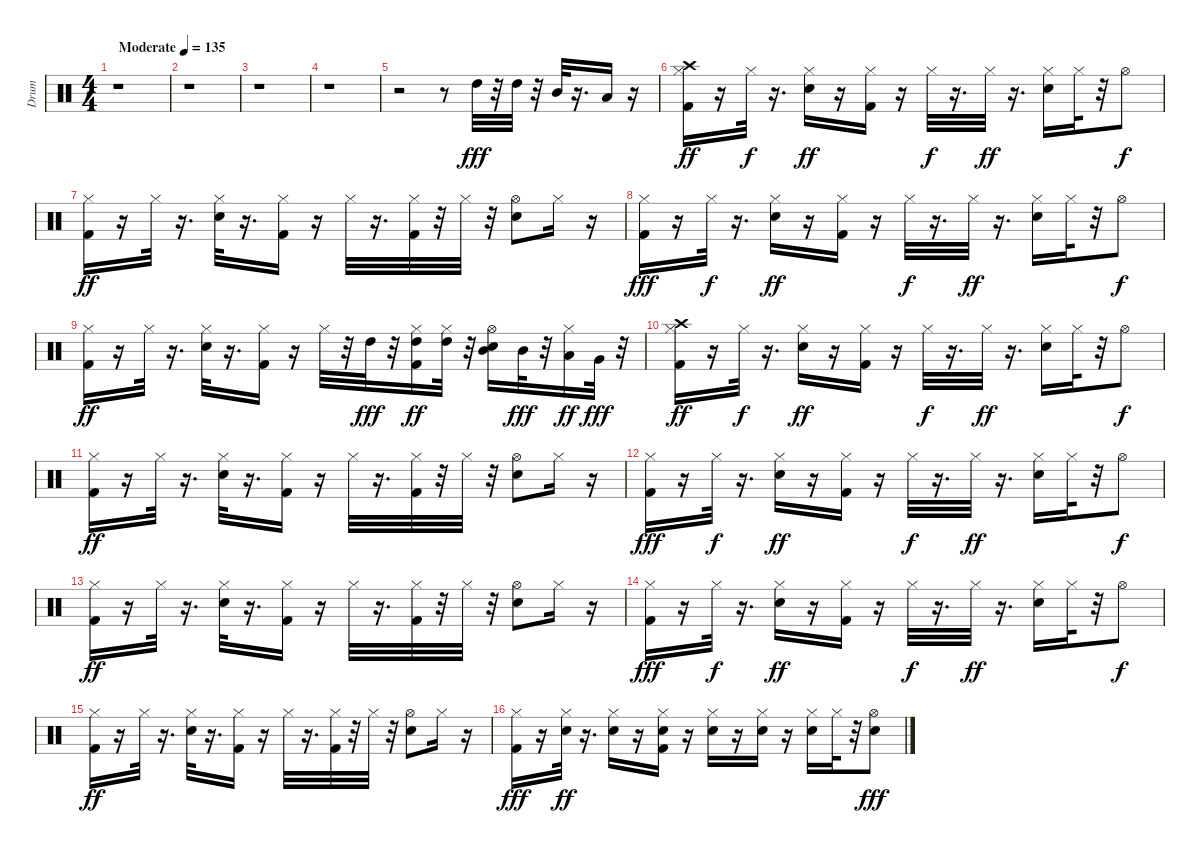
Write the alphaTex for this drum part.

\track ("Drum" "Drum") {instrument percussion}
\staff {score}
\articulation defaults
\ts (4 4)
\tempo (135 "Moderate")
\clef neutral
\ks c
r.1{dy fff} |
r.1 |
r.1 |
r.1 |
r.2 r.8 "High Tom (hit)".32 r.32 "High Tom (hit)".32 r.32 "Mid Tom (hit)".32 r.16{d} "Low Tom (hit)".16 r.16 |
("Kick (hit) 2" "Hi-Hat (closed)" "Crash high (hit)").16{dy ff} r.16 "Hi-Hat (closed)".32{dy f} r.16{d} ("Snare (hit) 2" "Hi-Hat (closed)").16{dy ff} r.16 ("Kick (hit) 2" "Hi-Hat (closed)").16 r.16 "Hi-Hat (closed)".32{dy f} r.16{d} "Hi-Hat (closed)".32{dy ff} r.16{d} ("Snare (hit) 2" "Hi-Hat (closed)").16 "Hi-Hat (closed)".32 r.32 "Hi-Hat (open)".8{dy f} |
("Kick (hit) 2" "Hi-Hat (closed)").16{dy ff} r.16 "Hi-Hat (closed)".32 r.16{d} ("Snare (hit) 2" "Hi-Hat (closed)").32 r.16{d} ("Kick (hit) 2" "Hi-Hat (closed)").16 r.16 "Hi-Hat (closed)".32 r.16{d} ("Kick (hit) 2" "Hi-Hat (closed)").32 r.32 "Hi-Hat (closed)".32 r.32 ("Snare (hit) 2" "Hi-Hat (open)").8 "Hi-Hat (closed)".16 r.16 |
("Kick (hit) 2" "Hi-Hat (closed)").16{dy fff} r.16 "Hi-Hat (closed)".32{dy f} r.16{d} ("Snare (hit) 2" "Hi-Hat (closed)").16{dy ff} r.16 ("Kick (hit) 2" "Hi-Hat (closed)").16 r.16 "Hi-Hat (closed)".32{dy f} r.16{d} "Hi-Hat (closed)".32{dy ff} r.16{d} ("Snare (hit) 2" "Hi-Hat (closed)").16 "Hi-Hat (closed)".32 r.32 "Hi-Hat (open)".8{dy f} |
("Kick (hit) 2" "Hi-Hat (closed)").16{dy ff} r.16 "Hi-Hat (closed)".32 r.16{d} ("Snare (hit) 2" "Hi-Hat (closed)").32 r.16{d} ("Kick (hit) 2" "Hi-Hat (closed)").16 r.16 "Hi-Hat (closed)".32 r.32 "High Tom (hit)".32{dy fff} r.32 ("High Tom (hit)" "Kick (hit) 2" "Hi-Hat (closed)").16{dy ff} ("High Tom (hit)" "Hi-Hat (closed)").32 r.32 ("Mid Tom (hit)" "Snare (hit) 2" "Hi-Hat (open)").16 "Mid Tom (hit)".32{dy fff} r.32 ("Low Tom (hit)" "Hi-Hat (closed)").16{dy ff} "Very Low Tom (hit)".32{dy fff} r.32 |
("Kick (hit) 2" "Hi-Hat (closed)" "Crash high (hit)").16{dy ff} r.16 "Hi-Hat (closed)".32{dy f} r.16{d} ("Snare (hit) 2" "Hi-Hat (closed)").16{dy ff} r.16 ("Kick (hit) 2" "Hi-Hat (closed)").16 r.16 "Hi-Hat (closed)".32{dy f} r.16{d} "Hi-Hat (closed)".32{dy ff} r.16{d} ("Snare (hit) 2" "Hi-Hat (closed)").16 "Hi-Hat (closed)".32 r.32 "Hi-Hat (open)".8{dy f} |
("Kick (hit) 2" "Hi-Hat (closed)").16{dy ff} r.16 "Hi-Hat (closed)".32 r.16{d} ("Snare (hit) 2" "Hi-Hat (closed)").32 r.16{d} ("Kick (hit) 2" "Hi-Hat (closed)").16 r.16 "Hi-Hat (closed)".32 r.16{d} ("Kick (hit) 2" "Hi-Hat (closed)").32 r.32 "Hi-Hat (closed)".32 r.32 ("Snare (hit) 2" "Hi-Hat (open)").8 "Hi-Hat (closed)".16 r.16 |
("Kick (hit) 2" "Hi-Hat (closed)").16{dy fff} r.16 "Hi-Hat (closed)".32{dy f} r.16{d} ("Snare (hit) 2" "Hi-Hat (closed)").16{dy ff} r.16 ("Kick (hit) 2" "Hi-Hat (closed)").16 r.16 "Hi-Hat (closed)".32{dy f} r.16{d} "Hi-Hat (closed)".32{dy ff} r.16{d} ("Snare (hit) 2" "Hi-Hat (closed)").16 "Hi-Hat (closed)".32 r.32 "Hi-Hat (open)".8{dy f} |
("Kick (hit) 2" "Hi-Hat (closed)").16{dy ff} r.16 "Hi-Hat (closed)".32 r.16{d} ("Snare (hit) 2" "Hi-Hat (closed)").32 r.16{d} ("Kick (hit) 2" "Hi-Hat (closed)").16 r.16 "Hi-Hat (closed)".32 r.16{d} ("Kick (hit) 2" "Hi-Hat (closed)").32 r.32 "Hi-Hat (closed)".32 r.32 ("Snare (hit) 2" "Hi-Hat (open)").8 "Hi-Hat (closed)".16 r.16 |
("Kick (hit) 2" "Hi-Hat (closed)").16{dy fff} r.16 "Hi-Hat (closed)".32{dy f} r.16{d} ("Snare (hit) 2" "Hi-Hat (closed)").16{dy ff} r.16 ("Kick (hit) 2" "Hi-Hat (closed)").16 r.16 "Hi-Hat (closed)".32{dy f} r.16{d} "Hi-Hat (closed)".32{dy ff} r.16{d} ("Snare (hit) 2" "Hi-Hat (closed)").16 "Hi-Hat (closed)".32 r.32 "Hi-Hat (open)".8{dy f} |
("Kick (hit) 2" "Hi-Hat (closed)").16{dy ff} r.16 "Hi-Hat (closed)".32 r.16{d} ("Snare (hit) 2" "Hi-Hat (closed)").32 r.16{d} ("Kick (hit) 2" "Hi-Hat (closed)").16 r.16 "Hi-Hat (closed)".32 r.16{d} ("Kick (hit) 2" "Hi-Hat (closed)").32 r.32 "Hi-Hat (closed)".32 r.32 ("Snare (hit) 2" "Hi-Hat (open)").8 "Hi-Hat (closed)".16 r.16 |
("Kick (hit) 2" "Hi-Hat (closed)").16{dy fff} r.16 ("Snare (hit) 2" "Hi-Hat (closed)").32{dy ff} r.16{d} ("Snare (hit) 2" "Hi-Hat (closed)").16 r.16 ("Snare (hit) 2" "Kick (hit) 2" "Hi-Hat (closed)").16 r.16 ("Snare (hit) 2" "Hi-Hat (closed)").16 r.16 ("Snare (hit) 2" "Hi-Hat (closed)").16 r.16 ("Snare (hit) 2" "Hi-Hat (closed)").16 "Hi-Hat (closed)".32 r.32 ("Snare (hit) 2" "Hi-Hat (open)").8{dy fff}
